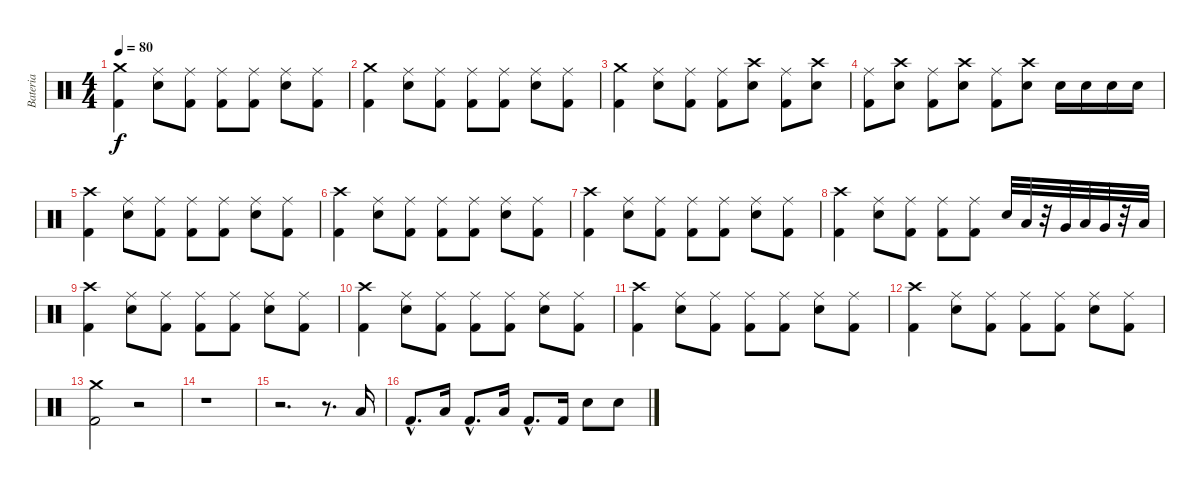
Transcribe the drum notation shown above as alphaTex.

\track ("Bateria" "Bateria") {instrument percussion}
\staff {score}
\articulation defaults
\ts (4 4)
\tempo 80
\clef neutral
\ks c
("Crash medium (hit)" "Kick (hit) 2").4{dy f} ("Ride (middle)" "Snare (hit) 2").8 ("Ride (middle)" "Kick (hit) 2").8 ("Ride (middle)" "Kick (hit) 2").8 ("Ride (middle)" "Kick (hit) 2").8 ("Ride (middle)" "Snare (hit) 2").8 ("Ride (middle)" "Kick (hit) 2").8 |
("Crash medium (hit)" "Kick (hit) 2").4 ("Ride (middle)" "Snare (hit) 2").8 ("Ride (middle)" "Kick (hit) 2").8 ("Ride (middle)" "Kick (hit) 2").8 ("Ride (middle)" "Kick (hit) 2").8 ("Ride (middle)" "Snare (hit) 2").8 ("Ride (middle)" "Kick (hit) 2").8 |
("Crash medium (hit)" "Kick (hit) 2").4 ("Ride (middle)" "Snare (hit) 2").8 ("Ride (middle)" "Kick (hit) 2").8 ("Ride (middle)" "Kick (hit) 2").8 ("Crash high (hit)" "Snare (hit) 2").8 ("Ride (middle)" "Kick (hit) 2").8 ("Crash high (hit)" "Snare (hit) 2").8 |
("Ride (middle)" "Kick (hit) 2").8 ("Crash high (hit)" "Snare (hit) 2").8 ("Ride (middle)" "Kick (hit) 2").8 ("Crash high (hit)" "Snare (hit) 2").8 ("Ride (middle)" "Kick (hit) 2").8 ("Crash high (hit)" "Snare (hit) 2").8 "Snare (hit) 2".16 "Snare (hit) 2".16 "Snare (hit) 2".16 "Snare (hit) 2".16 |
("Crash high (hit)" "Kick (hit) 2").4 ("Ride (middle)" "Snare (hit) 2").8 ("Ride (middle)" "Kick (hit) 2").8 ("Ride (middle)" "Kick (hit) 2").8 ("Ride (middle)" "Kick (hit) 2").8 ("Ride (middle)" "Snare (hit) 2").8 ("Ride (middle)" "Kick (hit) 2").8 |
("Crash high (hit)" "Kick (hit) 2").4 ("Ride (middle)" "Snare (hit) 2").8 ("Ride (middle)" "Kick (hit) 2").8 ("Ride (middle)" "Kick (hit) 2").8 ("Ride (middle)" "Kick (hit) 2").8 ("Ride (middle)" "Snare (hit) 2").8 ("Ride (middle)" "Kick (hit) 2").8 |
("Crash high (hit)" "Kick (hit) 2").4 ("Ride (middle)" "Snare (hit) 2").8 ("Ride (middle)" "Kick (hit) 2").8 ("Ride (middle)" "Kick (hit) 2").8 ("Ride (middle)" "Kick (hit) 2").8 ("Ride (middle)" "Snare (hit) 2").8 ("Ride (middle)" "Kick (hit) 2").8 |
("Crash high (hit)" "Kick (hit) 2").4 ("Ride (middle)" "Snare (hit) 2").8 ("Ride (middle)" "Kick (hit) 2").8 ("Ride (middle)" "Kick (hit) 2").8 ("Ride (middle)" "Kick (hit) 2").8 "Snare (hit) 2".32 "Low Tom (hit)".32 r.32 "Very Low Tom (hit)".32 "Low Tom (hit)".32 "Very Low Tom (hit)".32 r.32 "Low Floor Tom (hit)".32 |
("Crash high (hit)" "Kick (hit) 2").4 ("Ride (middle)" "Snare (hit) 2").8 ("Ride (middle)" "Kick (hit) 2").8 ("Ride (middle)" "Kick (hit) 2").8 ("Ride (middle)" "Kick (hit) 2").8 ("Ride (middle)" "Snare (hit) 2").8 ("Ride (middle)" "Kick (hit) 2").8 |
("Crash high (hit)" "Kick (hit) 2").4 ("Ride (middle)" "Snare (hit) 2").8 ("Ride (middle)" "Kick (hit) 2").8 ("Ride (middle)" "Kick (hit) 2").8 ("Ride (middle)" "Kick (hit) 2").8 ("Ride (middle)" "Snare (hit) 2").8 ("Ride (middle)" "Kick (hit) 2").8 |
("Crash high (hit)" "Kick (hit) 2").4 ("Ride (middle)" "Snare (hit) 2").8 ("Ride (middle)" "Kick (hit) 2").8 ("Ride (middle)" "Kick (hit) 2").8 ("Ride (middle)" "Kick (hit) 2").8 ("Ride (middle)" "Snare (hit) 2").8 ("Ride (middle)" "Kick (hit) 2").8 |
("Crash high (hit)" "Kick (hit) 2").4 ("Ride (middle)" "Snare (hit) 2").8 ("Ride (middle)" "Kick (hit) 2").8 ("Ride (middle)" "Kick (hit) 2").8 ("Ride (middle)" "Kick (hit) 2").8 ("Ride (middle)" "Snare (hit) 2").8 ("Ride (middle)" "Kick (hit) 2").8 |
("Kick (hit) 2" "Crash medium (hit)").2 r.2 |
r.1 |
r.2{d} r.8{d} "Low Floor Tom (hit)".16 |
"Kick (hit) 2"{hac}.8{d} "Low Floor Tom (hit)".16 "Kick (hit) 2"{hac}.8{d} "Low Floor Tom (hit)".16 "Kick (hit) 2"{hac}.8{d} "Kick (hit) 2".16 "Snare (hit) 2".8 "Snare (hit) 2".8
